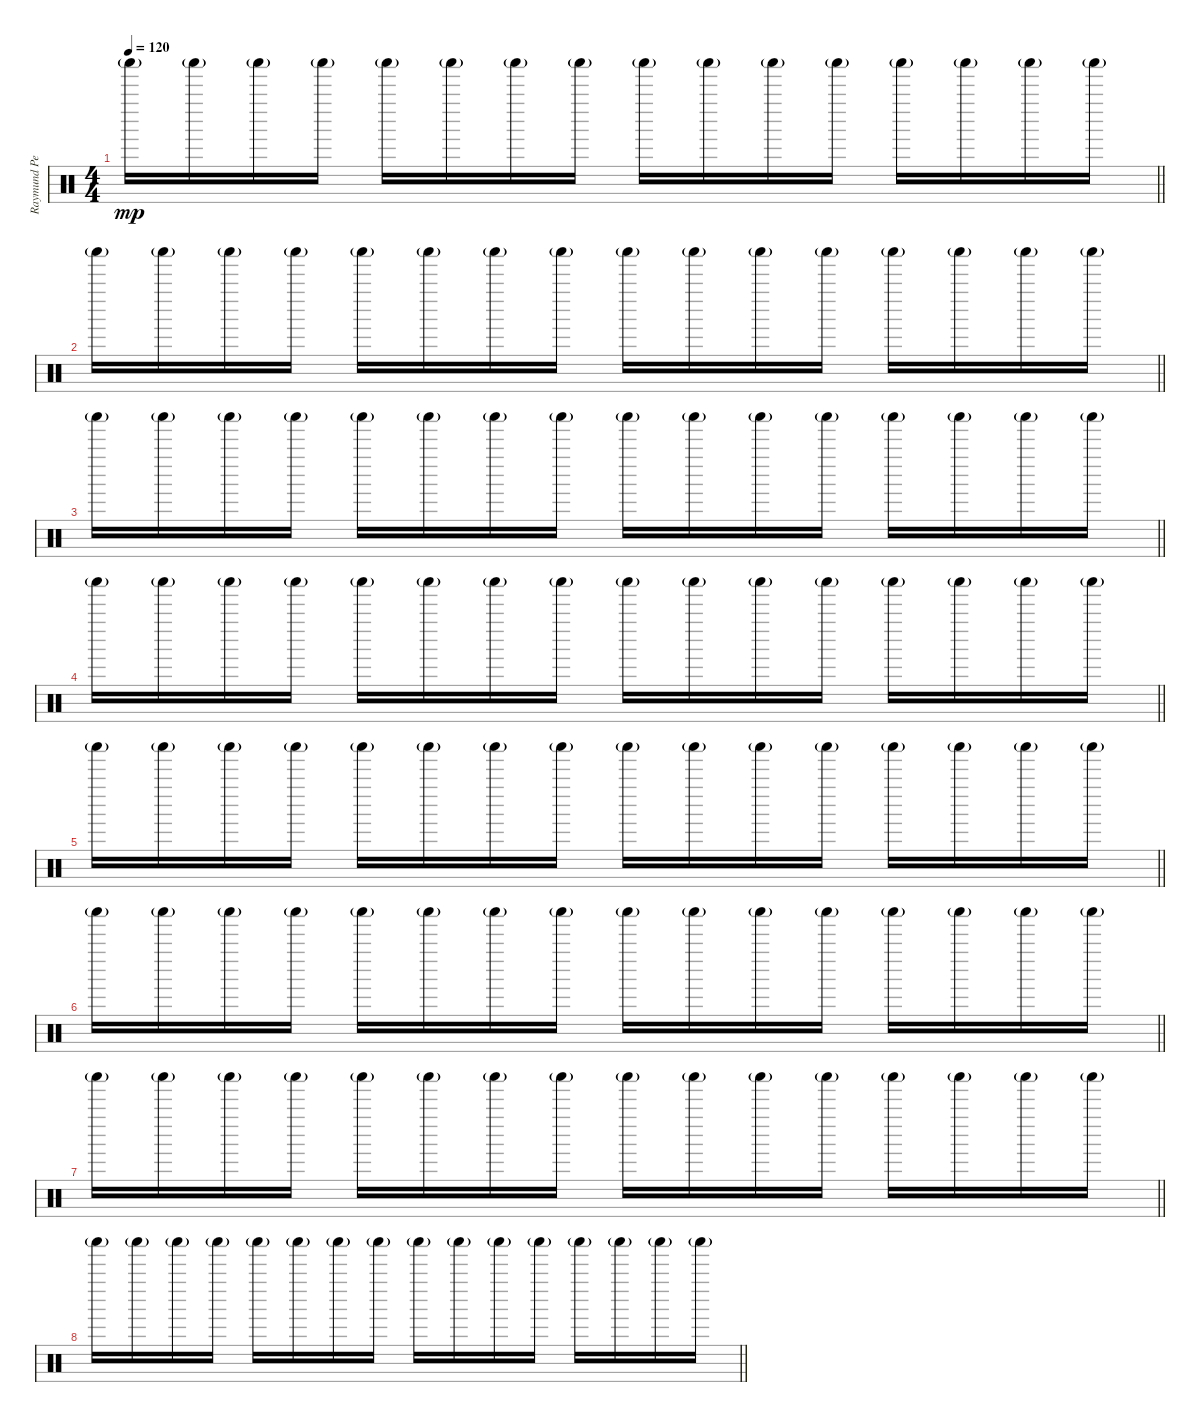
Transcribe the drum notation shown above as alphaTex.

\track ("Raymund Percussion" "Raymund Pe") {instrument percussion}
\staff {score}
\articulation defaults
\ts (4 4)
\tempo 120
\clef neutral
\barLineRight lightlight
\ks c "Shaker (hit)"{g}.16{dy mp} "Shaker (hit)"{g}.16 "Shaker (hit)"{g}.16 "Shaker (hit)"{g}.16 "Shaker (hit)"{g}.16 "Shaker (hit)"{g}.16 "Shaker (hit)"{g}.16 "Shaker (hit)"{g}.16 "Shaker (hit)"{g}.16 "Shaker (hit)"{g}.16 "Shaker (hit)"{g}.16 "Shaker (hit)"{g}.16 "Shaker (hit)"{g}.16 "Shaker (hit)"{g}.16 "Shaker (hit)"{g}.16 "Shaker (hit)"{g}.16
|
\barLineRight lightlight "Shaker (hit)"{g}.16 "Shaker (hit)"{g}.16 "Shaker (hit)"{g}.16 "Shaker (hit)"{g}.16 "Shaker (hit)"{g}.16 "Shaker (hit)"{g}.16 "Shaker (hit)"{g}.16 "Shaker (hit)"{g}.16 "Shaker (hit)"{g}.16 "Shaker (hit)"{g}.16 "Shaker (hit)"{g}.16 "Shaker (hit)"{g}.16 "Shaker (hit)"{g}.16 "Shaker (hit)"{g}.16 "Shaker (hit)"{g}.16 "Shaker (hit)"{g}.16
|
\barLineRight lightlight "Shaker (hit)"{g}.16 "Shaker (hit)"{g}.16 "Shaker (hit)"{g}.16 "Shaker (hit)"{g}.16 "Shaker (hit)"{g}.16 "Shaker (hit)"{g}.16 "Shaker (hit)"{g}.16 "Shaker (hit)"{g}.16 "Shaker (hit)"{g}.16 "Shaker (hit)"{g}.16 "Shaker (hit)"{g}.16 "Shaker (hit)"{g}.16 "Shaker (hit)"{g}.16 "Shaker (hit)"{g}.16 "Shaker (hit)"{g}.16 "Shaker (hit)"{g}.16
|
\barLineRight lightlight "Shaker (hit)"{g}.16 "Shaker (hit)"{g}.16 "Shaker (hit)"{g}.16 "Shaker (hit)"{g}.16 "Shaker (hit)"{g}.16 "Shaker (hit)"{g}.16 "Shaker (hit)"{g}.16 "Shaker (hit)"{g}.16 "Shaker (hit)"{g}.16 "Shaker (hit)"{g}.16 "Shaker (hit)"{g}.16 "Shaker (hit)"{g}.16 "Shaker (hit)"{g}.16 "Shaker (hit)"{g}.16 "Shaker (hit)"{g}.16 "Shaker (hit)"{g}.16
|
\barLineRight lightlight "Shaker (hit)"{g}.16 "Shaker (hit)"{g}.16 "Shaker (hit)"{g}.16 "Shaker (hit)"{g}.16 "Shaker (hit)"{g}.16 "Shaker (hit)"{g}.16 "Shaker (hit)"{g}.16 "Shaker (hit)"{g}.16 "Shaker (hit)"{g}.16 "Shaker (hit)"{g}.16 "Shaker (hit)"{g}.16 "Shaker (hit)"{g}.16 "Shaker (hit)"{g}.16 "Shaker (hit)"{g}.16 "Shaker (hit)"{g}.16 "Shaker (hit)"{g}.16
|
\barLineRight lightlight "Shaker (hit)"{g}.16 "Shaker (hit)"{g}.16 "Shaker (hit)"{g}.16 "Shaker (hit)"{g}.16 "Shaker (hit)"{g}.16 "Shaker (hit)"{g}.16 "Shaker (hit)"{g}.16 "Shaker (hit)"{g}.16 "Shaker (hit)"{g}.16 "Shaker (hit)"{g}.16 "Shaker (hit)"{g}.16 "Shaker (hit)"{g}.16 "Shaker (hit)"{g}.16 "Shaker (hit)"{g}.16 "Shaker (hit)"{g}.16 "Shaker (hit)"{g}.16
|
\barLineRight lightlight "Shaker (hit)"{g}.16 "Shaker (hit)"{g}.16 "Shaker (hit)"{g}.16 "Shaker (hit)"{g}.16 "Shaker (hit)"{g}.16 "Shaker (hit)"{g}.16 "Shaker (hit)"{g}.16 "Shaker (hit)"{g}.16 "Shaker (hit)"{g}.16 "Shaker (hit)"{g}.16 "Shaker (hit)"{g}.16 "Shaker (hit)"{g}.16 "Shaker (hit)"{g}.16 "Shaker (hit)"{g}.16 "Shaker (hit)"{g}.16 "Shaker (hit)"{g}.16
|
\barLineRight lightlight "Shaker (hit)"{g}.16 "Shaker (hit)"{g}.16 "Shaker (hit)"{g}.16 "Shaker (hit)"{g}.16 "Shaker (hit)"{g}.16 "Shaker (hit)"{g}.16 "Shaker (hit)"{g}.16 "Shaker (hit)"{g}.16 "Shaker (hit)"{g}.16 "Shaker (hit)"{g}.16 "Shaker (hit)"{g}.16 "Shaker (hit)"{g}.16 "Shaker (hit)"{g}.16 "Shaker (hit)"{g}.16 "Shaker (hit)"{g}.16 "Shaker (hit)"{g}.16
